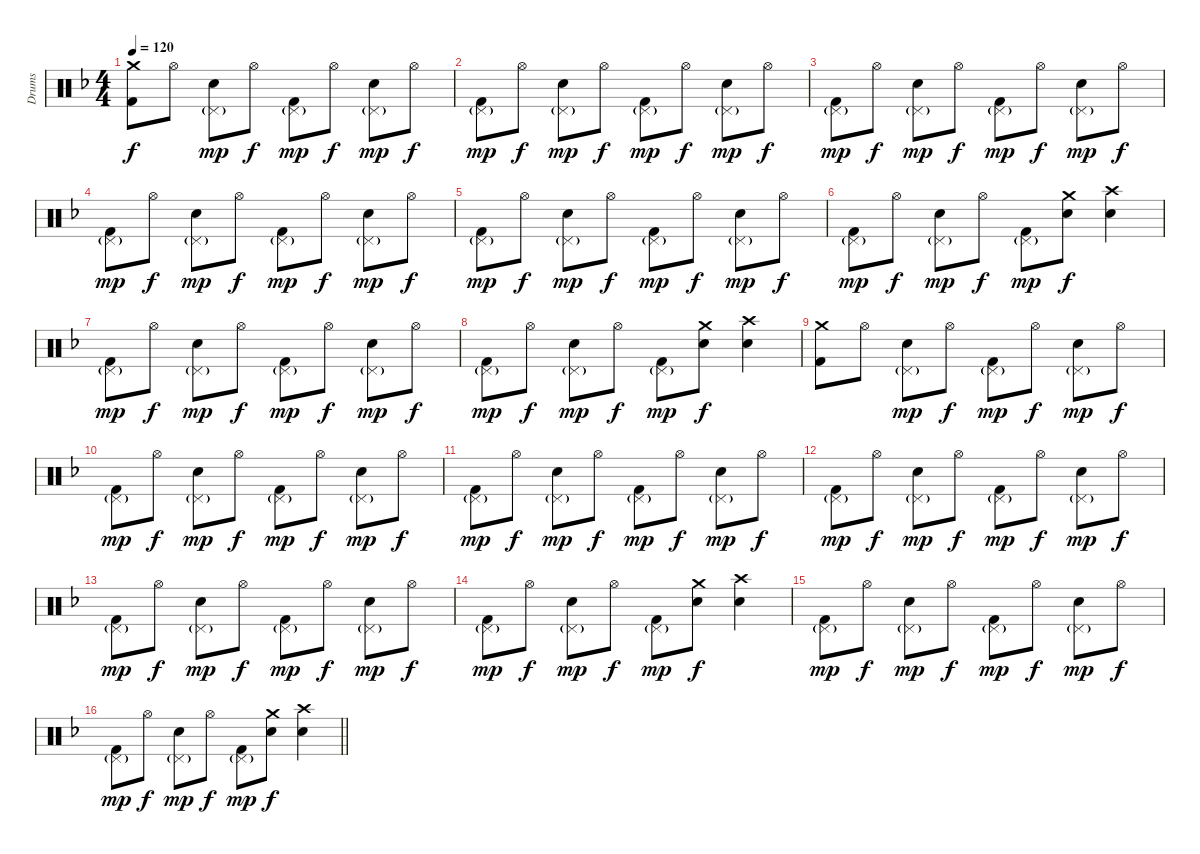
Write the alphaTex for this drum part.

\track ("Drums" "Drums") {instrument percussion}
\staff {score}
\articulation defaults
\ts (4 4)
\tempo 120
\clef neutral
\ks dminor
("Crash medium (hit)" "Kick (hit) 2").8{dy f} "Hi-Hat (open)".8 ("Pedal Hi-Hat (hit)"{g} "Electric Snare (hit)").8{dy mp} "Hi-Hat (open)".8{dy f} ("Pedal Hi-Hat (hit)"{g} "Kick (hit) 2").8{dy mp} "Hi-Hat (open)".8{dy f} ("Pedal Hi-Hat (hit)"{g} "Electric Snare (hit)").8{dy mp} "Hi-Hat (open)".8{dy f} |
("Pedal Hi-Hat (hit)"{g} "Kick (hit) 2").8{dy mp} "Hi-Hat (open)".8{dy f} ("Pedal Hi-Hat (hit)"{g} "Electric Snare (hit)").8{dy mp} "Hi-Hat (open)".8{dy f} ("Pedal Hi-Hat (hit)"{g} "Kick (hit) 2").8{dy mp} "Hi-Hat (open)".8{dy f} ("Pedal Hi-Hat (hit)"{g} "Electric Snare (hit)").8{dy mp} "Hi-Hat (open)".8{dy f} |
("Pedal Hi-Hat (hit)"{g} "Kick (hit) 2").8{dy mp} "Hi-Hat (open)".8{dy f} ("Pedal Hi-Hat (hit)"{g} "Electric Snare (hit)").8{dy mp} "Hi-Hat (open)".8{dy f} ("Pedal Hi-Hat (hit)"{g} "Kick (hit) 2").8{dy mp} "Hi-Hat (open)".8{dy f} ("Pedal Hi-Hat (hit)"{g} "Electric Snare (hit)").8{dy mp} "Hi-Hat (open)".8{dy f} |
("Pedal Hi-Hat (hit)"{g} "Kick (hit) 2").8{dy mp} "Hi-Hat (open)".8{dy f} ("Pedal Hi-Hat (hit)"{g} "Electric Snare (hit)").8{dy mp} "Hi-Hat (open)".8{dy f} ("Pedal Hi-Hat (hit)"{g} "Kick (hit) 2").8{dy mp} "Hi-Hat (open)".8{dy f} ("Pedal Hi-Hat (hit)"{g} "Electric Snare (hit)").8{dy mp} "Hi-Hat (open)".8{dy f} |
("Pedal Hi-Hat (hit)"{g} "Kick (hit) 2").8{dy mp} "Hi-Hat (open)".8{dy f} ("Pedal Hi-Hat (hit)"{g} "Electric Snare (hit)").8{dy mp} "Hi-Hat (open)".8{dy f} ("Pedal Hi-Hat (hit)"{g} "Kick (hit) 2").8{dy mp} "Hi-Hat (open)".8{dy f} ("Pedal Hi-Hat (hit)"{g} "Electric Snare (hit)").8{dy mp} "Hi-Hat (open)".8{dy f} |
("Pedal Hi-Hat (hit)"{g} "Kick (hit) 2").8{dy mp} "Hi-Hat (open)".8{dy f} ("Pedal Hi-Hat (hit)"{g} "Electric Snare (hit)").8{dy mp} "Hi-Hat (open)".8{dy f} ("Pedal Hi-Hat (hit)"{g} "Kick (hit) 2").8{dy mp} ("Crash medium (hit)" "Electric Snare (hit)").8{dy f} ("Crash high (hit)" "Electric Snare (hit)").4 |
("Pedal Hi-Hat (hit)"{g} "Kick (hit) 2").8{dy mp} "Hi-Hat (open)".8{dy f} ("Pedal Hi-Hat (hit)"{g} "Electric Snare (hit)").8{dy mp} "Hi-Hat (open)".8{dy f} ("Pedal Hi-Hat (hit)"{g} "Kick (hit) 2").8{dy mp} "Hi-Hat (open)".8{dy f} ("Pedal Hi-Hat (hit)"{g} "Electric Snare (hit)").8{dy mp} "Hi-Hat (open)".8{dy f} |
("Pedal Hi-Hat (hit)"{g} "Kick (hit) 2").8{dy mp} "Hi-Hat (open)".8{dy f} ("Pedal Hi-Hat (hit)"{g} "Electric Snare (hit)").8{dy mp} "Hi-Hat (open)".8{dy f} ("Pedal Hi-Hat (hit)"{g} "Kick (hit) 2").8{dy mp} ("Crash medium (hit)" "Electric Snare (hit)").8{dy f} ("Crash high (hit)" "Electric Snare (hit)").4 |
("Crash medium (hit)" "Kick (hit) 2").8 "Hi-Hat (open)".8 ("Pedal Hi-Hat (hit)"{g} "Electric Snare (hit)").8{dy mp} "Hi-Hat (open)".8{dy f} ("Pedal Hi-Hat (hit)"{g} "Kick (hit) 2").8{dy mp} "Hi-Hat (open)".8{dy f} ("Pedal Hi-Hat (hit)"{g} "Electric Snare (hit)").8{dy mp} "Hi-Hat (open)".8{dy f} |
("Pedal Hi-Hat (hit)"{g} "Kick (hit) 2").8{dy mp} "Hi-Hat (open)".8{dy f} ("Pedal Hi-Hat (hit)"{g} "Electric Snare (hit)").8{dy mp} "Hi-Hat (open)".8{dy f} ("Pedal Hi-Hat (hit)"{g} "Kick (hit) 2").8{dy mp} "Hi-Hat (open)".8{dy f} ("Pedal Hi-Hat (hit)"{g} "Electric Snare (hit)").8{dy mp} "Hi-Hat (open)".8{dy f} |
("Pedal Hi-Hat (hit)"{g} "Kick (hit) 2").8{dy mp} "Hi-Hat (open)".8{dy f} ("Pedal Hi-Hat (hit)"{g} "Electric Snare (hit)").8{dy mp} "Hi-Hat (open)".8{dy f} ("Pedal Hi-Hat (hit)"{g} "Kick (hit) 2").8{dy mp} "Hi-Hat (open)".8{dy f} ("Pedal Hi-Hat (hit)"{g} "Electric Snare (hit)").8{dy mp} "Hi-Hat (open)".8{dy f} |
("Pedal Hi-Hat (hit)"{g} "Kick (hit) 2").8{dy mp} "Hi-Hat (open)".8{dy f} ("Pedal Hi-Hat (hit)"{g} "Electric Snare (hit)").8{dy mp} "Hi-Hat (open)".8{dy f} ("Pedal Hi-Hat (hit)"{g} "Kick (hit) 2").8{dy mp} "Hi-Hat (open)".8{dy f} ("Pedal Hi-Hat (hit)"{g} "Electric Snare (hit)").8{dy mp} "Hi-Hat (open)".8{dy f} |
("Pedal Hi-Hat (hit)"{g} "Kick (hit) 2").8{dy mp} "Hi-Hat (open)".8{dy f} ("Pedal Hi-Hat (hit)"{g} "Electric Snare (hit)").8{dy mp} "Hi-Hat (open)".8{dy f} ("Pedal Hi-Hat (hit)"{g} "Kick (hit) 2").8{dy mp} "Hi-Hat (open)".8{dy f} ("Pedal Hi-Hat (hit)"{g} "Electric Snare (hit)").8{dy mp} "Hi-Hat (open)".8{dy f} |
("Pedal Hi-Hat (hit)"{g} "Kick (hit) 2").8{dy mp} "Hi-Hat (open)".8{dy f} ("Pedal Hi-Hat (hit)"{g} "Electric Snare (hit)").8{dy mp} "Hi-Hat (open)".8{dy f} ("Pedal Hi-Hat (hit)"{g} "Kick (hit) 2").8{dy mp} ("Crash medium (hit)" "Electric Snare (hit)").8{dy f} ("Crash high (hit)" "Electric Snare (hit)").4 |
("Pedal Hi-Hat (hit)"{g} "Kick (hit) 2").8{dy mp} "Hi-Hat (open)".8{dy f} ("Pedal Hi-Hat (hit)"{g} "Electric Snare (hit)").8{dy mp} "Hi-Hat (open)".8{dy f} ("Pedal Hi-Hat (hit)"{g} "Kick (hit) 2").8{dy mp} "Hi-Hat (open)".8{dy f} ("Pedal Hi-Hat (hit)"{g} "Electric Snare (hit)").8{dy mp} "Hi-Hat (open)".8{dy f} |
\barLineRight lightlight
("Pedal Hi-Hat (hit)"{g} "Kick (hit) 2").8{dy mp} "Hi-Hat (open)".8{dy f} ("Pedal Hi-Hat (hit)"{g} "Electric Snare (hit)").8{dy mp} "Hi-Hat (open)".8{dy f} ("Pedal Hi-Hat (hit)"{g} "Kick (hit) 2").8{dy mp} ("Crash medium (hit)" "Electric Snare (hit)").8{dy f} ("Crash high (hit)" "Electric Snare (hit)").4
